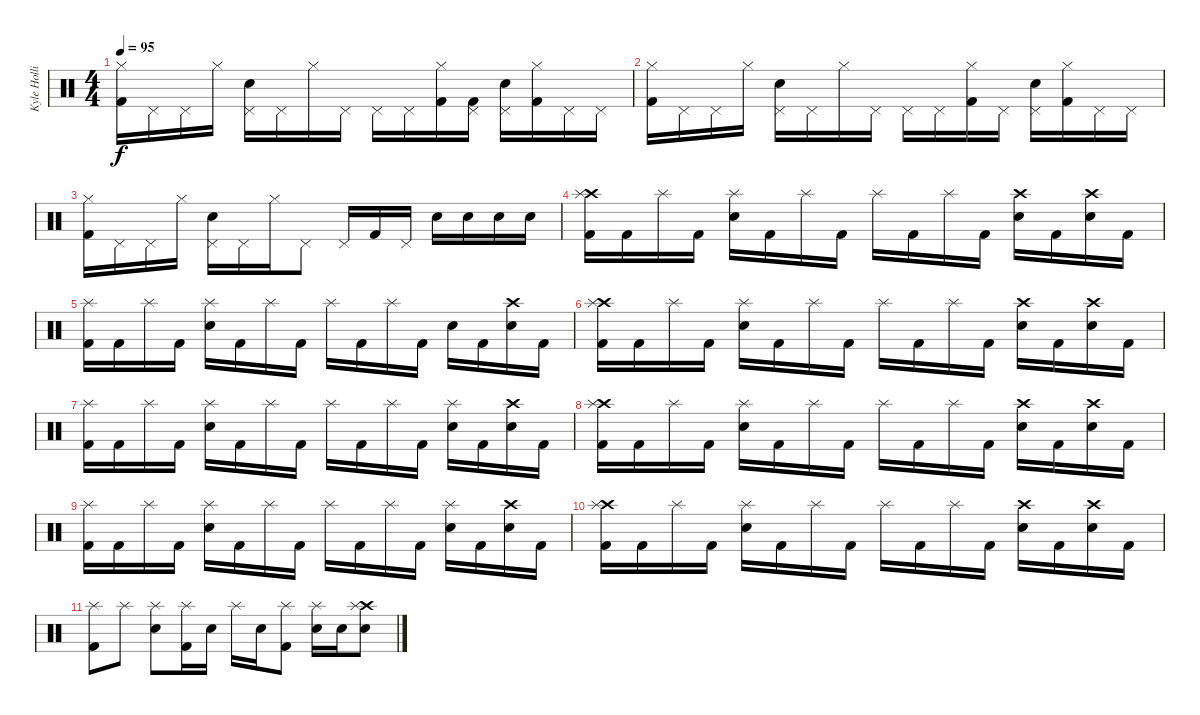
\track ("Kyle Hollinger - Drums" "Kyle Holli") {instrument percussion}
\staff {score}
\articulation defaults
\ts (4 4)
\tempo 95
\clef neutral
\ks c
("Hi-Hat (closed)" "Kick (hit) 2").16{dy f volume 16} "Pedal Hi-Hat (hit)".16{volume 5} "Pedal Hi-Hat (hit)".16 "Hi-Hat (closed)".16{volume 16} ("Pedal Hi-Hat (hit)" "Electric Snare (hit)").16 "Pedal Hi-Hat (hit)".16{volume 5} "Hi-Hat (closed)".16{volume 16} "Pedal Hi-Hat (hit)".16{volume 5} "Pedal Hi-Hat (hit)".16 "Pedal Hi-Hat (hit)".16{volume 5} ("Hi-Hat (closed)" "Kick (hit) 2").16{volume 16} ("Pedal Hi-Hat (hit)" "Kick (hit) 2").16{volume 16} ("Pedal Hi-Hat (hit)" "Electric Snare (hit)").16{volume 16} ("Hi-Hat (closed)" "Kick (hit) 2").16 "Pedal Hi-Hat (hit)".16{volume 5} "Pedal Hi-Hat (hit)".16 |
("Hi-Hat (closed)" "Kick (hit) 2").16{volume 16} "Pedal Hi-Hat (hit)".16{volume 5} "Pedal Hi-Hat (hit)".16 "Hi-Hat (closed)".16{volume 16} ("Pedal Hi-Hat (hit)" "Electric Snare (hit)").16 "Pedal Hi-Hat (hit)".16{volume 5} "Hi-Hat (closed)".16{volume 16} "Pedal Hi-Hat (hit)".16{volume 5} "Pedal Hi-Hat (hit)".16 "Pedal Hi-Hat (hit)".16{volume 5} ("Hi-Hat (closed)" "Kick (hit) 2").16{volume 16} "Pedal Hi-Hat (hit)".16{volume 5} ("Pedal Hi-Hat (hit)" "Electric Snare (hit)").16{volume 16} ("Hi-Hat (closed)" "Kick (hit) 2").16 "Pedal Hi-Hat (hit)".16{volume 5} "Pedal Hi-Hat (hit)".16 |
("Hi-Hat (closed)" "Kick (hit) 2").16{volume 16} "Pedal Hi-Hat (hit)".16{volume 5} "Pedal Hi-Hat (hit)".16 "Hi-Hat (closed)".16{volume 16} ("Pedal Hi-Hat (hit)" "Electric Snare (hit)").16 "Pedal Hi-Hat (hit)".16{volume 5} "Hi-Hat (closed)".16{volume 16} "Pedal Hi-Hat (hit)".8{volume 5} "Pedal Hi-Hat (hit)".16 "Kick (hit) 2".16{volume 16} "Pedal Hi-Hat (hit)".16{volume 16} "Electric Snare (hit)".16{volume 16} "Electric Snare (hit)".16 "Electric Snare (hit)".16 "Electric Snare (hit)".16 |
("Crash high (hit)" "Splash (hit)" "Kick (hit) 2").16 "Kick (hit) 2".16 "Splash (hit)".16 "Kick (hit) 2".16 ("Electric Snare (hit)" "Splash (hit)").16 "Kick (hit) 2".16 "Splash (hit)".16 "Kick (hit) 2".16 "Splash (hit)".16 "Kick (hit) 2".16 "Splash (hit)".16 "Kick (hit) 2".16 ("Crash high (hit)" "Electric Snare (hit)").16 "Kick (hit) 2".16 ("Crash high (hit)" "Electric Snare (hit)").16 "Kick (hit) 2".16 |
("Splash (hit)" "Kick (hit) 2").16 "Kick (hit) 2".16 "Splash (hit)".16 "Kick (hit) 2".16 ("Electric Snare (hit)" "Splash (hit)").16 "Kick (hit) 2".16 "Splash (hit)".16 "Kick (hit) 2".16 "Splash (hit)".16 "Kick (hit) 2".16 "Splash (hit)".16 "Kick (hit) 2".16 "Electric Snare (hit)".16 "Kick (hit) 2".16 ("Crash high (hit)" "Electric Snare (hit)").16 "Kick (hit) 2".16 |
("Crash high (hit)" "Splash (hit)" "Kick (hit) 2").16 "Kick (hit) 2".16 "Splash (hit)".16 "Kick (hit) 2".16 ("Electric Snare (hit)" "Splash (hit)").16 "Kick (hit) 2".16 "Splash (hit)".16 "Kick (hit) 2".16 "Splash (hit)".16 "Kick (hit) 2".16 "Splash (hit)".16 "Kick (hit) 2".16 ("Crash high (hit)" "Electric Snare (hit)").16 "Kick (hit) 2".16 ("Crash high (hit)" "Electric Snare (hit)").16 "Kick (hit) 2".16 |
("Splash (hit)" "Kick (hit) 2").16 "Kick (hit) 2".16 "Splash (hit)".16 "Kick (hit) 2".16 ("Electric Snare (hit)" "Splash (hit)").16 "Kick (hit) 2".16 "Splash (hit)".16 "Kick (hit) 2".16 "Splash (hit)".16 "Kick (hit) 2".16 "Splash (hit)".16 "Kick (hit) 2".16 ("Electric Snare (hit)" "Splash (hit)").16 "Kick (hit) 2".16 ("Crash high (hit)" "Electric Snare (hit)").16 "Kick (hit) 2".16 |
("Crash high (hit)" "Splash (hit)" "Kick (hit) 2").16 "Kick (hit) 2".16 "Splash (hit)".16 "Kick (hit) 2".16 ("Electric Snare (hit)" "Splash (hit)").16 "Kick (hit) 2".16 "Splash (hit)".16 "Kick (hit) 2".16 "Splash (hit)".16 "Kick (hit) 2".16 "Splash (hit)".16 "Kick (hit) 2".16 ("Crash high (hit)" "Electric Snare (hit)").16 "Kick (hit) 2".16 ("Crash high (hit)" "Electric Snare (hit)").16 "Kick (hit) 2".16 |
("Splash (hit)" "Kick (hit) 2").16 "Kick (hit) 2".16 "Splash (hit)".16 "Kick (hit) 2".16 ("Electric Snare (hit)" "Splash (hit)").16 "Kick (hit) 2".16 "Splash (hit)".16 "Kick (hit) 2".16 "Splash (hit)".16 "Kick (hit) 2".16 "Splash (hit)".16 "Kick (hit) 2".16 ("Electric Snare (hit)" "Splash (hit)").16 "Kick (hit) 2".16 ("Crash high (hit)" "Electric Snare (hit)").16 "Kick (hit) 2".16 |
("Crash high (hit)" "Splash (hit)" "Kick (hit) 2").16 "Kick (hit) 2".16 "Splash (hit)".16 "Kick (hit) 2".16 ("Electric Snare (hit)" "Splash (hit)").16 "Kick (hit) 2".16 "Splash (hit)".16 "Kick (hit) 2".16 "Splash (hit)".16 "Kick (hit) 2".16 "Splash (hit)".16 "Kick (hit) 2".16 ("Crash high (hit)" "Electric Snare (hit)").16 "Kick (hit) 2".16 ("Crash high (hit)" "Electric Snare (hit)").16 "Kick (hit) 2".16 |
("Splash (hit)" "Kick (hit) 2").8 "Splash (hit)".8 ("Electric Snare (hit)" "Splash (hit)").8 ("Splash (hit)" "Kick (hit) 2").16 "Electric Snare (hit)".16 "Splash (hit)".16 "Electric Snare (hit)".16 ("Splash (hit)" "Kick (hit) 2").8 ("Electric Snare (hit)" "Splash (hit)").16 "Electric Snare (hit)".16 ("Crash high (hit)" "Electric Snare (hit)" "Splash (hit)").8
